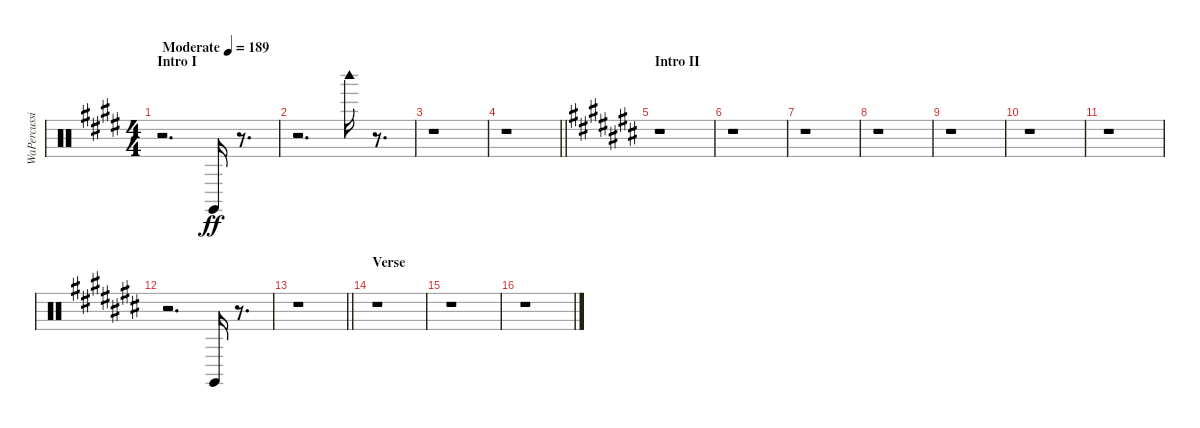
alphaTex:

\track ("WaPercussion" "WaPercussi") {instrument percussion}
\staff {score}
\articulation defaults
\ts (4 4)
\section ("" "Intro I")
\tempo (189 "Moderate")
\clef neutral
\ks e
r.2{d dy ff} "Claves (hit)".16 r.8{d} |
\ks c#minor
r.2{d} "Woodblock high (hit)".16 r.8{d} |
r.1 |
\barLineRight lightlight
r.1 |
\section ("" "Intro II")
\ks c#
r.1 |
\ks a#minor
r.1 |
\ks c#
r.1 |
\ks a#minor
r.1 |
\ks c#
r.1 |
\ks a#minor
r.1 |
r.1 |
r.2{d} "Claves (hit)".16 r.8{d} |
\barLineRight lightlight
r.1 |
\section ("" "Verse")
\ks c#
r.1 |
\ks a#minor
r.1 |
r.1
